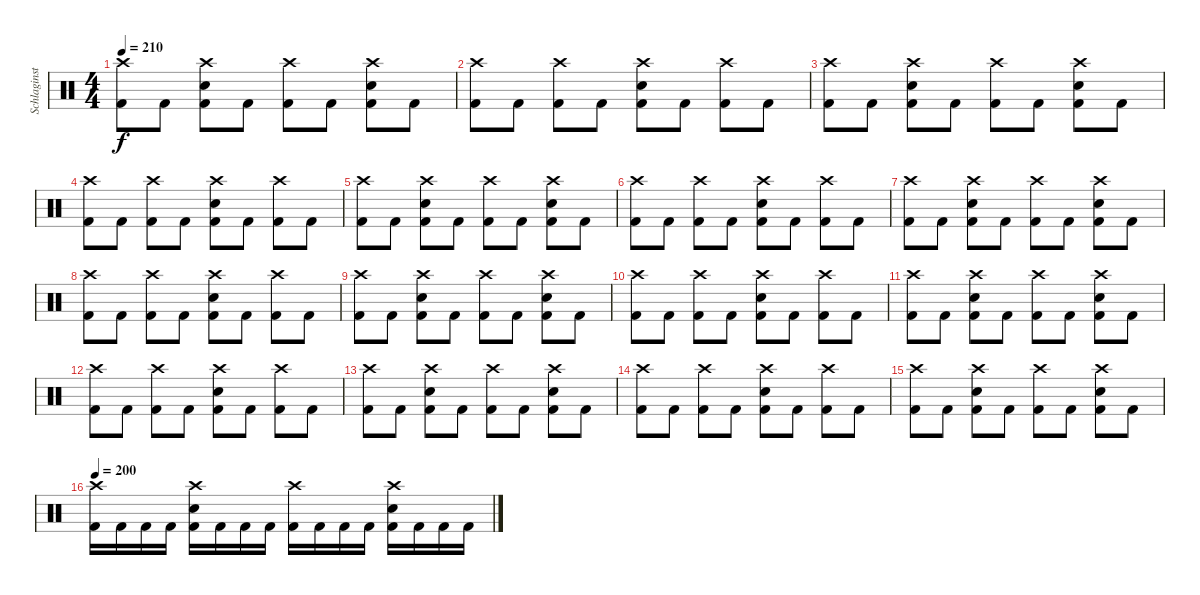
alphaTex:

\track ("Schlaginstrumente - Auswahl" "Schlaginst") {instrument percussion}
\staff {score}
\articulation defaults
\ts (4 4)
\tempo 210
\clef neutral
\ks c
("Crash high (hit)" "Kick (hit) 2").8{dy f} "Kick (hit) 2".8 ("Crash high (hit)" "Snare (hit) 2" "Kick (hit) 2").8 "Kick (hit) 2".8 ("Crash high (hit)" "Kick (hit) 2").8 "Kick (hit) 2".8 ("Crash high (hit)" "Snare (hit) 2" "Kick (hit) 2").8 "Kick (hit) 2".8 |
("Crash high (hit)" "Kick (hit) 2").8 "Kick (hit) 2".8 ("Crash high (hit)" "Kick (hit) 2").8 "Kick (hit) 2".8 ("Crash high (hit)" "Snare (hit) 2" "Kick (hit) 2").8 "Kick (hit) 2".8 ("Crash high (hit)" "Kick (hit) 2").8 "Kick (hit) 2".8 |
("Crash high (hit)" "Kick (hit) 2").8 "Kick (hit) 2".8 ("Crash high (hit)" "Snare (hit) 2" "Kick (hit) 2").8 "Kick (hit) 2".8 ("Crash high (hit)" "Kick (hit) 2").8 "Kick (hit) 2".8 ("Crash high (hit)" "Snare (hit) 2" "Kick (hit) 2").8 "Kick (hit) 2".8 |
("Crash high (hit)" "Kick (hit) 2").8 "Kick (hit) 2".8 ("Crash high (hit)" "Kick (hit) 2").8 "Kick (hit) 2".8 ("Crash high (hit)" "Snare (hit) 2" "Kick (hit) 2").8 "Kick (hit) 2".8 ("Crash high (hit)" "Kick (hit) 2").8 "Kick (hit) 2".8 |
("Crash high (hit)" "Kick (hit) 2").8 "Kick (hit) 2".8 ("Crash high (hit)" "Snare (hit) 2" "Kick (hit) 2").8 "Kick (hit) 2".8 ("Crash high (hit)" "Kick (hit) 2").8 "Kick (hit) 2".8 ("Crash high (hit)" "Snare (hit) 2" "Kick (hit) 2").8 "Kick (hit) 2".8 |
("Crash high (hit)" "Kick (hit) 2").8 "Kick (hit) 2".8 ("Crash high (hit)" "Kick (hit) 2").8 "Kick (hit) 2".8 ("Crash high (hit)" "Snare (hit) 2" "Kick (hit) 2").8 "Kick (hit) 2".8 ("Crash high (hit)" "Kick (hit) 2").8 "Kick (hit) 2".8 |
("Crash high (hit)" "Kick (hit) 2").8 "Kick (hit) 2".8 ("Crash high (hit)" "Snare (hit) 2" "Kick (hit) 2").8 "Kick (hit) 2".8 ("Crash high (hit)" "Kick (hit) 2").8 "Kick (hit) 2".8 ("Crash high (hit)" "Snare (hit) 2" "Kick (hit) 2").8 "Kick (hit) 2".8 |
("Crash high (hit)" "Kick (hit) 2").8 "Kick (hit) 2".8 ("Crash high (hit)" "Kick (hit) 2").8 "Kick (hit) 2".8 ("Crash high (hit)" "Snare (hit) 2" "Kick (hit) 2").8 "Kick (hit) 2".8 ("Crash high (hit)" "Kick (hit) 2").8 "Kick (hit) 2".8 |
("Crash high (hit)" "Kick (hit) 2").8 "Kick (hit) 2".8 ("Crash high (hit)" "Snare (hit) 2" "Kick (hit) 2").8 "Kick (hit) 2".8 ("Crash high (hit)" "Kick (hit) 2").8 "Kick (hit) 2".8 ("Crash high (hit)" "Snare (hit) 2" "Kick (hit) 2").8 "Kick (hit) 2".8 |
("Crash high (hit)" "Kick (hit) 2").8 "Kick (hit) 2".8 ("Crash high (hit)" "Kick (hit) 2").8 "Kick (hit) 2".8 ("Crash high (hit)" "Snare (hit) 2" "Kick (hit) 2").8 "Kick (hit) 2".8 ("Crash high (hit)" "Kick (hit) 2").8 "Kick (hit) 2".8 |
("Crash high (hit)" "Kick (hit) 2").8 "Kick (hit) 2".8 ("Crash high (hit)" "Snare (hit) 2" "Kick (hit) 2").8 "Kick (hit) 2".8 ("Crash high (hit)" "Kick (hit) 2").8 "Kick (hit) 2".8 ("Crash high (hit)" "Snare (hit) 2" "Kick (hit) 2").8 "Kick (hit) 2".8 |
("Crash high (hit)" "Kick (hit) 2").8 "Kick (hit) 2".8 ("Crash high (hit)" "Kick (hit) 2").8 "Kick (hit) 2".8 ("Crash high (hit)" "Snare (hit) 2" "Kick (hit) 2").8 "Kick (hit) 2".8 ("Crash high (hit)" "Kick (hit) 2").8 "Kick (hit) 2".8 |
("Crash high (hit)" "Kick (hit) 2").8 "Kick (hit) 2".8 ("Crash high (hit)" "Snare (hit) 2" "Kick (hit) 2").8 "Kick (hit) 2".8 ("Crash high (hit)" "Kick (hit) 2").8 "Kick (hit) 2".8 ("Crash high (hit)" "Snare (hit) 2" "Kick (hit) 2").8 "Kick (hit) 2".8 |
("Crash high (hit)" "Kick (hit) 2").8 "Kick (hit) 2".8 ("Crash high (hit)" "Kick (hit) 2").8 "Kick (hit) 2".8 ("Crash high (hit)" "Snare (hit) 2" "Kick (hit) 2").8 "Kick (hit) 2".8 ("Crash high (hit)" "Kick (hit) 2").8 "Kick (hit) 2".8 |
("Crash high (hit)" "Kick (hit) 2").8 "Kick (hit) 2".8 ("Crash high (hit)" "Snare (hit) 2" "Kick (hit) 2").8 "Kick (hit) 2".8 ("Crash high (hit)" "Kick (hit) 2").8 "Kick (hit) 2".8 ("Crash high (hit)" "Snare (hit) 2" "Kick (hit) 2").8 "Kick (hit) 2".8 |
\tempo 200
("Crash high (hit)" "Kick (hit) 2").16 "Kick (hit) 2".16 "Kick (hit) 2".16 "Kick (hit) 2".16 ("Crash high (hit)" "Snare (hit) 2" "Kick (hit) 2").16 "Kick (hit) 2".16 "Kick (hit) 2".16 "Kick (hit) 2".16 ("Crash high (hit)" "Kick (hit) 2").16 "Kick (hit) 2".16 "Kick (hit) 2".16 "Kick (hit) 2".16 ("Crash high (hit)" "Snare (hit) 2" "Kick (hit) 2").16 "Kick (hit) 2".16 "Kick (hit) 2".16 "Kick (hit) 2".16
